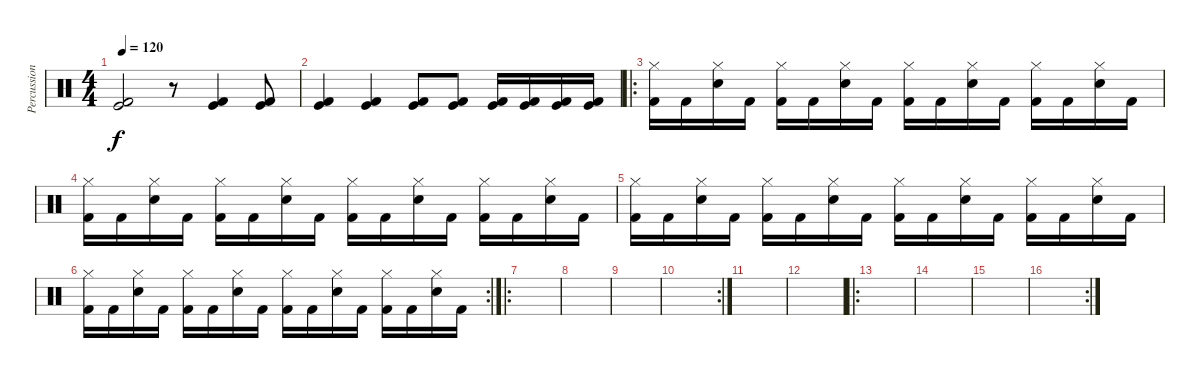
\track ("Percussions" "Percussion") {instrument percussion}
\staff {score}
\articulation defaults
\ts (4 4)
\tempo 120
\clef neutral
\ks c
("Kick (hit) 2" "Kick (hit)").2{dy f} r.8 ("Kick (hit) 2" "Kick (hit)").4 ("Kick (hit) 2" "Kick (hit)").8 |
("Kick (hit)" "Kick (hit) 2").4 ("Kick (hit)" "Kick (hit) 2").4 ("Kick (hit)" "Kick (hit) 2").8 ("Kick (hit)" "Kick (hit) 2").8 ("Kick (hit)" "Kick (hit) 2").16 ("Kick (hit)" "Kick (hit) 2").16 ("Kick (hit)" "Kick (hit) 2").16 ("Kick (hit)" "Kick (hit) 2").16 |
\ro
("Hi-Hat (closed)" "Kick (hit) 2").16 "Kick (hit) 2".16 ("Hi-Hat (closed)" "Snare (hit) 2").16 "Kick (hit) 2".16 ("Hi-Hat (closed)" "Kick (hit) 2").16 "Kick (hit) 2".16 ("Hi-Hat (closed)" "Snare (hit) 2").16 "Kick (hit) 2".16 ("Hi-Hat (closed)" "Kick (hit) 2").16 "Kick (hit) 2".16 ("Hi-Hat (closed)" "Snare (hit) 2").16 "Kick (hit) 2".16 ("Hi-Hat (closed)" "Kick (hit) 2").16 "Kick (hit) 2".16 ("Hi-Hat (closed)" "Snare (hit) 2").16 "Kick (hit) 2".16 |
("Hi-Hat (closed)" "Kick (hit) 2").16 "Kick (hit) 2".16 ("Hi-Hat (closed)" "Snare (hit) 2").16 "Kick (hit) 2".16 ("Hi-Hat (closed)" "Kick (hit) 2").16 "Kick (hit) 2".16 ("Hi-Hat (closed)" "Snare (hit) 2").16 "Kick (hit) 2".16 ("Hi-Hat (closed)" "Kick (hit) 2").16 "Kick (hit) 2".16 ("Hi-Hat (closed)" "Snare (hit) 2").16 "Kick (hit) 2".16 ("Hi-Hat (closed)" "Kick (hit) 2").16 "Kick (hit) 2".16 ("Hi-Hat (closed)" "Snare (hit) 2").16 "Kick (hit) 2".16 |
("Hi-Hat (closed)" "Kick (hit) 2").16 "Kick (hit) 2".16 ("Hi-Hat (closed)" "Snare (hit) 2").16 "Kick (hit) 2".16 ("Hi-Hat (closed)" "Kick (hit) 2").16 "Kick (hit) 2".16 ("Hi-Hat (closed)" "Snare (hit) 2").16 "Kick (hit) 2".16 ("Hi-Hat (closed)" "Kick (hit) 2").16 "Kick (hit) 2".16 ("Hi-Hat (closed)" "Snare (hit) 2").16 "Kick (hit) 2".16 ("Hi-Hat (closed)" "Kick (hit) 2").16 "Kick (hit) 2".16 ("Hi-Hat (closed)" "Snare (hit) 2").16 "Kick (hit) 2".16 |
\rc 2
("Hi-Hat (closed)" "Kick (hit) 2").16 "Kick (hit) 2".16 ("Hi-Hat (closed)" "Snare (hit) 2").16 "Kick (hit) 2".16 ("Hi-Hat (closed)" "Kick (hit) 2").16 "Kick (hit) 2".16 ("Hi-Hat (closed)" "Snare (hit) 2").16 "Kick (hit) 2".16 ("Hi-Hat (closed)" "Kick (hit) 2").16 "Kick (hit) 2".16 ("Hi-Hat (closed)" "Snare (hit) 2").16 "Kick (hit) 2".16 ("Hi-Hat (closed)" "Kick (hit) 2").16 "Kick (hit) 2".16 ("Hi-Hat (closed)" "Snare (hit) 2").16 "Kick (hit) 2".16 |
\ro
|
|
|
\rc 2
|
|
|
\ro
|
|
|
\rc 2
